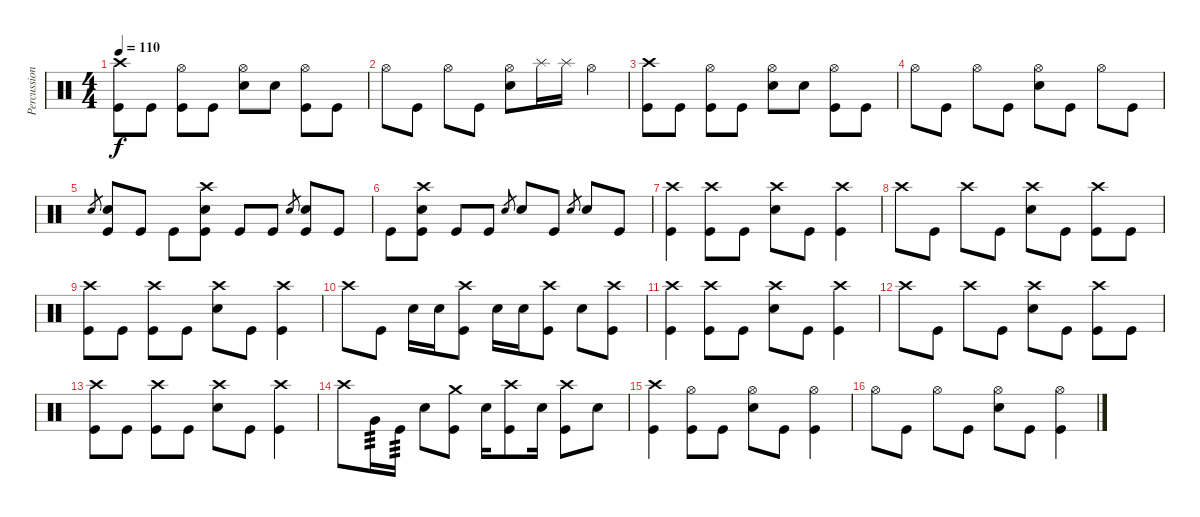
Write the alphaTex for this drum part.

\track ("Percussion" "Percussion") {instrument percussion}
\staff {score}
\articulation defaults
\ts (4 4)
\tempo 110
\clef neutral
\ks c
("Crash high (hit)" "Kick (hit)").8{dy f} "Kick (hit)".8 ("Hi-Hat (open)" "Kick (hit)").8 "Kick (hit)".8 ("Hi-Hat (open)" "Electric Snare (hit)").8 "Electric Snare (hit)".8 ("Hi-Hat (open)" "Kick (hit)").8 "Kick (hit)".8 |
"Hi-Hat (open)".8 "Kick (hit)".8 "Hi-Hat (open)".8 "Kick (hit)".8 ("Hi-Hat (open)" "Electric Snare (hit)").8 "Splash (hit)".16 "Splash (hit)".16 "Hi-Hat (open)".4 |
("Crash high (hit)" "Kick (hit)").8 "Kick (hit)".8 ("Hi-Hat (open)" "Kick (hit)").8 "Kick (hit)".8 ("Hi-Hat (open)" "Electric Snare (hit)").8 "Electric Snare (hit)".8 ("Hi-Hat (open)" "Kick (hit)").8 "Kick (hit)".8 |
"Hi-Hat (open)".8 "Kick (hit)".8 "Hi-Hat (open)".8 "Kick (hit)".8 ("Hi-Hat (open)" "Electric Snare (hit)").8 "Kick (hit)".8 "Hi-Hat (open)".8 "Kick (hit)".8 |
"Electric Snare (hit)".8{gr} ("Electric Snare (hit)" "Kick (hit)").8 "Kick (hit)".8 "Kick (hit)".8 ("Crash high (hit)" "Electric Snare (hit)" "Kick (hit)").8 "Kick (hit)".8 "Kick (hit)".8 "Electric Snare (hit)".8{gr} ("Electric Snare (hit)" "Kick (hit)").8 "Kick (hit)".8 |
"Kick (hit)".8 ("Crash high (hit)" "Electric Snare (hit)" "Kick (hit)").8 "Kick (hit)".8 "Kick (hit)".8 "Electric Snare (hit)".8{gr} "Electric Snare (hit)".8 "Kick (hit)".8 "Electric Snare (hit)".8{gr} "Electric Snare (hit)".8 "Kick (hit)".8 |
("Crash high (hit)" "Kick (hit)").4 ("Crash high (hit)" "Kick (hit)").8 "Kick (hit)".8 ("Crash high (hit)" "Electric Snare (hit)").8 "Kick (hit)".8 ("Crash high (hit)" "Kick (hit)").4 |
"Crash high (hit)".8 "Kick (hit)".8 "Crash high (hit)".8 "Kick (hit)".8 ("Crash high (hit)" "Electric Snare (hit)").8 "Kick (hit)".8 ("Crash high (hit)" "Kick (hit)").8 "Kick (hit)".8 |
("Crash high (hit)" "Kick (hit)").8 "Kick (hit)".8 ("Crash high (hit)" "Kick (hit)").8 "Kick (hit)".8 ("Crash high (hit)" "Electric Snare (hit)").8 "Kick (hit)".8 ("Crash high (hit)" "Kick (hit)").4 |
"Crash high (hit)".8 "Kick (hit)".8 "Electric Snare (hit)".16 "Electric Snare (hit)".16 ("Crash high (hit)" "Kick (hit)").8 "Electric Snare (hit)".16 "Electric Snare (hit)".16 ("Crash high (hit)" "Kick (hit)").8 "Electric Snare (hit)".8 ("Crash high (hit)" "Kick (hit)").8 |
("Crash high (hit)" "Kick (hit)").4 ("Crash high (hit)" "Kick (hit)").8 "Kick (hit)".8 ("Crash high (hit)" "Electric Snare (hit)").8 "Kick (hit)".8 ("Crash high (hit)" "Kick (hit)").4 |
"Crash high (hit)".8 "Kick (hit)".8 "Crash high (hit)".8 "Kick (hit)".8 ("Crash high (hit)" "Electric Snare (hit)").8 "Kick (hit)".8 ("Crash high (hit)" "Kick (hit)").8 "Kick (hit)".8 |
("Crash high (hit)" "Kick (hit)").8 "Kick (hit)".8 ("Crash high (hit)" "Kick (hit)").8 "Kick (hit)".8 ("Crash high (hit)" "Electric Snare (hit)").8 "Kick (hit)".8 ("Crash high (hit)" "Kick (hit)").4 |
"Crash high (hit)".8 "Very Low Tom (hit)".16{tp 3} "Kick (hit)".16{tp 3} "Electric Snare (hit)".8 ("Crash medium (hit)" "Kick (hit)").8 "Electric Snare (hit)".16 ("Crash high (hit)" "Kick (hit)").8 "Electric Snare (hit)".16 ("Crash high (hit)" "Kick (hit)").8 "Electric Snare (hit)".8 |
("Crash high (hit)" "Kick (hit)").4 ("Hi-Hat (open)" "Kick (hit)").8 "Kick (hit)".8 ("Hi-Hat (open)" "Electric Snare (hit)").8 "Kick (hit)".8 ("Hi-Hat (open)" "Kick (hit)").4 |
"Hi-Hat (open)".8 "Kick (hit)".8 "Hi-Hat (open)".8 "Kick (hit)".8 ("Hi-Hat (open)" "Electric Snare (hit)").8 "Kick (hit)".8 ("Hi-Hat (open)" "Kick (hit)").4
